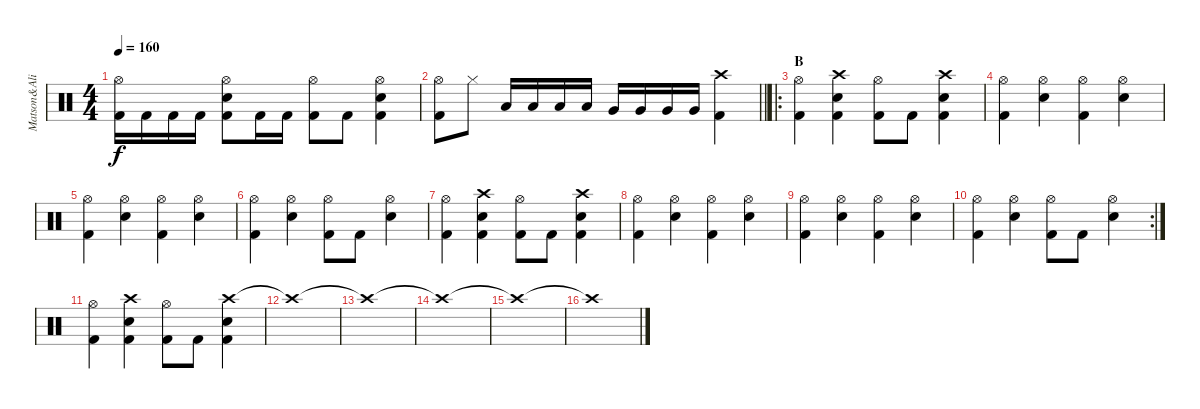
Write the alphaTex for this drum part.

\track ("Matson&Ali" "Matson&Ali") {instrument percussion}
\staff {score}
\articulation defaults
\ts (4 4)
\tempo 160
\clef neutral
\ks c
("Hi-Hat (open)" "Kick (hit) 2").16{dy f} "Kick (hit) 2".16 "Kick (hit) 2".16 "Kick (hit) 2".16 ("Hi-Hat (open)" "Snare (hit) 2" "Kick (hit) 2").8 "Kick (hit) 2".16 "Kick (hit) 2".16 ("Hi-Hat (open)" "Kick (hit) 2").8 "Kick (hit) 2".8 ("Hi-Hat (open)" "Snare (hit) 2" "Kick (hit) 2").4 |
\barLineRight lightlight
("Hi-Hat (open)" "Kick (hit) 2").8 "Hi-Hat (closed)".8 "Low Tom (hit)".16 "Low Tom (hit)".16 "Low Tom (hit)".16 "Low Tom (hit)".16 "Very Low Tom (hit)".16 "Very Low Tom (hit)".16 "Very Low Tom (hit)".16 "Very Low Tom (hit)".16 ("Crash high (hit)" "Kick (hit) 2").4 |
\ro
\section ("" "B")
("Hi-Hat (open)" "Kick (hit) 2").4 ("Crash high (hit)" "Snare (hit) 2" "Kick (hit) 2").4 ("Hi-Hat (open)" "Kick (hit) 2").8 "Kick (hit) 2".8 ("Crash high (hit)" "Snare (hit) 2" "Kick (hit) 2").4 |
("Hi-Hat (open)" "Kick (hit) 2").4 ("Hi-Hat (open)" "Snare (hit) 2").4 ("Hi-Hat (open)" "Kick (hit) 2").4 ("Hi-Hat (open)" "Snare (hit) 2").4 |
("Hi-Hat (open)" "Kick (hit) 2").4 ("Hi-Hat (open)" "Snare (hit) 2").4 ("Hi-Hat (open)" "Kick (hit) 2").4 ("Hi-Hat (open)" "Snare (hit) 2").4 |
("Hi-Hat (open)" "Kick (hit) 2").4 ("Hi-Hat (open)" "Snare (hit) 2").4 ("Hi-Hat (open)" "Kick (hit) 2").8 "Kick (hit) 2".8 ("Hi-Hat (open)" "Snare (hit) 2").4 |
("Hi-Hat (open)" "Kick (hit) 2").4 ("Crash high (hit)" "Snare (hit) 2" "Kick (hit) 2").4 ("Hi-Hat (open)" "Kick (hit) 2").8 "Kick (hit) 2".8 ("Crash high (hit)" "Snare (hit) 2" "Kick (hit) 2").4 |
("Hi-Hat (open)" "Kick (hit) 2").4 ("Hi-Hat (open)" "Snare (hit) 2").4 ("Hi-Hat (open)" "Kick (hit) 2").4 ("Hi-Hat (open)" "Snare (hit) 2").4 |
("Hi-Hat (open)" "Kick (hit) 2").4 ("Hi-Hat (open)" "Snare (hit) 2").4 ("Hi-Hat (open)" "Kick (hit) 2").4 ("Hi-Hat (open)" "Snare (hit) 2").4 |
\rc 2
("Hi-Hat (open)" "Kick (hit) 2").4 ("Hi-Hat (open)" "Snare (hit) 2").4 ("Hi-Hat (open)" "Kick (hit) 2").8 "Kick (hit) 2".8 ("Hi-Hat (open)" "Snare (hit) 2").4 |
("Hi-Hat (open)" "Kick (hit) 2").4 ("Crash high (hit)" "Snare (hit) 2" "Kick (hit) 2").4 ("Hi-Hat (open)" "Kick (hit) 2").8 "Kick (hit) 2".8 ("Crash high (hit)" "Snare (hit) 2" "Kick (hit) 2").4 |
"Crash high (hit)"{t}.1 |
"Crash high (hit)"{t}.1{volume 10} |
"Crash high (hit)"{t}.1{volume 7} |
"Crash high (hit)"{t}.1{volume 4} |
"Crash high (hit)"{t}.1{volume 1}
